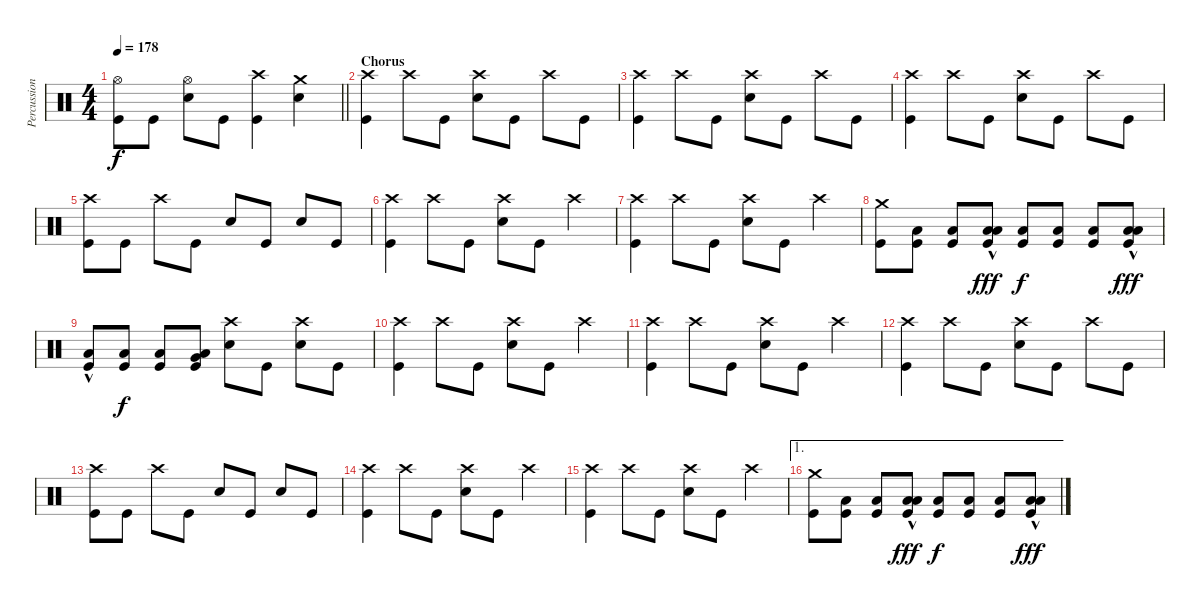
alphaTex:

\track ("Percussion" "Percussion") {instrument percussion}
\staff {score}
\articulation defaults
\ts (4 4)
\tempo 178
\clef neutral
\barLineRight lightlight
\ks c
("Hi-Hat (open)" "Kick (hit)").8{dy f} "Kick (hit)".8 ("Hi-Hat (open)" "Snare (hit) 2").8 "Kick (hit)".8 ("Crash high (hit)" "Kick (hit)").4 ("Crash medium (hit)" "Snare (hit) 2").4 |
\section ("" "Chorus")
("Crash high (hit)" "Kick (hit)").4 "Crash high (hit)".8 "Kick (hit)".8 ("Crash high (hit)" "Snare (hit) 2").8 "Kick (hit)".8 "Crash high (hit)".8 "Kick (hit)".8 |
("Crash high (hit)" "Kick (hit)").4 "Crash high (hit)".8 "Kick (hit)".8 ("Crash high (hit)" "Snare (hit) 2").8 "Kick (hit)".8 "Crash high (hit)".8 "Kick (hit)".8 |
("Crash high (hit)" "Kick (hit)").4 "Crash high (hit)".8 "Kick (hit)".8 ("Crash high (hit)" "Snare (hit) 2").8 "Kick (hit)".8 "Crash high (hit)".8 "Kick (hit)".8 |
("Crash high (hit)" "Kick (hit)").8 "Kick (hit)".8 "Crash high (hit)".8 "Kick (hit)".8 "Snare (hit) 2".8 "Kick (hit)".8 "Snare (hit) 2".8 "Kick (hit)".8 |
("Crash high (hit)" "Kick (hit)").4 "Crash high (hit)".8 "Kick (hit)".8 ("Crash high (hit)" "Snare (hit) 2").8 "Kick (hit)".8 "Crash high (hit)".4 |
("Crash high (hit)" "Kick (hit)").4 "Crash high (hit)".8 "Kick (hit)".8 ("Crash high (hit)" "Snare (hit) 2").8 "Kick (hit)".8 "Crash high (hit)".4 |
("Crash medium (hit)" "Kick (hit)").8 ("Low Floor Tom (hit)" "Kick (hit)").8 ("Low Floor Tom (hit)" "Kick (hit)").8 ("Low Tom (hit)"{hac} "Low Floor Tom (hit)"{hac} "Kick (hit)").8{dy fff} ("Low Floor Tom (hit)" "Kick (hit)").8{dy f} ("Low Floor Tom (hit)" "Kick (hit)").8 ("Low Floor Tom (hit)" "Kick (hit)").8 ("Low Tom (hit)"{hac} "Low Floor Tom (hit)"{hac} "Kick (hit)").8{dy fff} |
("Low Floor Tom (hit)"{hac} "Kick (hit)").8 ("Low Floor Tom (hit)" "Kick (hit)").8{dy f} ("Low Floor Tom (hit)" "Kick (hit)").8 ("Very Low Tom (hit)" "Low Floor Tom (hit)" "Kick (hit)").8 ("Crash high (hit)" "Snare (hit) 2").8 "Kick (hit)".8 ("Crash high (hit)" "Snare (hit) 2").8 "Kick (hit)".8 |
("Crash high (hit)" "Kick (hit)").4 "Crash high (hit)".8 "Kick (hit)".8 ("Crash high (hit)" "Snare (hit) 2").8 "Kick (hit)".8 "Crash high (hit)".4 |
("Crash high (hit)" "Kick (hit)").4 "Crash high (hit)".8 "Kick (hit)".8 ("Crash high (hit)" "Snare (hit) 2").8 "Kick (hit)".8 "Crash high (hit)".4 |
("Crash high (hit)" "Kick (hit)").4 "Crash high (hit)".8 "Kick (hit)".8 ("Crash high (hit)" "Snare (hit) 2").8 "Kick (hit)".8 "Crash high (hit)".8 "Kick (hit)".8 |
("Crash high (hit)" "Kick (hit)").8 "Kick (hit)".8 "Crash high (hit)".8 "Kick (hit)".8 "Snare (hit) 2".8 "Kick (hit)".8 "Snare (hit) 2".8 "Kick (hit)".8 |
("Crash high (hit)" "Kick (hit)").4 "Crash high (hit)".8 "Kick (hit)".8 ("Crash high (hit)" "Snare (hit) 2").8 "Kick (hit)".8 "Crash high (hit)".4 |
("Crash high (hit)" "Kick (hit)").4 "Crash high (hit)".8 "Kick (hit)".8 ("Crash high (hit)" "Snare (hit) 2").8 "Kick (hit)".8 "Crash high (hit)".4 |
\ae 1
("Crash medium (hit)" "Kick (hit)").8 ("Low Floor Tom (hit)" "Kick (hit)").8 ("Low Floor Tom (hit)" "Kick (hit)").8 ("Low Tom (hit)"{hac} "Low Floor Tom (hit)"{hac} "Kick (hit)").8{dy fff} ("Low Floor Tom (hit)" "Kick (hit)").8{dy f} ("Low Floor Tom (hit)" "Kick (hit)").8 ("Low Floor Tom (hit)" "Kick (hit)").8 ("Low Tom (hit)"{hac} "Low Floor Tom (hit)"{hac} "Kick (hit)").8{dy fff}
